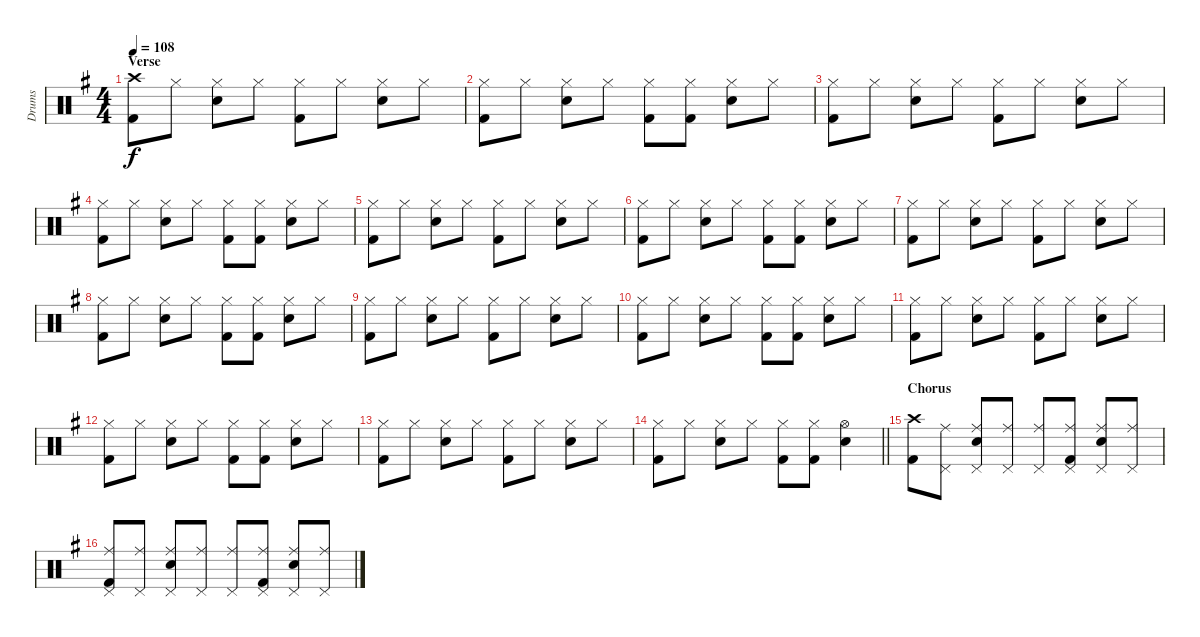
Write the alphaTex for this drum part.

\track ("Drums" "Drums") {instrument percussion}
\staff {score}
\articulation defaults
\ts (4 4)
\section ("" "Verse")
\tempo 108
\clef neutral
\ks g
("Crash high (hit)" "Kick (hit) 2").8{dy f} "Hi-Hat (closed)".8 ("Hi-Hat (closed)" "Electric Snare (hit)").8 "Hi-Hat (closed)".8 ("Hi-Hat (closed)" "Kick (hit) 2").8 "Hi-Hat (closed)".8 ("Hi-Hat (closed)" "Electric Snare (hit)").8 "Hi-Hat (closed)".8 |
("Hi-Hat (closed)" "Kick (hit) 2").8 "Hi-Hat (closed)".8 ("Hi-Hat (closed)" "Electric Snare (hit)").8 "Hi-Hat (closed)".8 ("Hi-Hat (closed)" "Kick (hit) 2").8 ("Hi-Hat (closed)" "Kick (hit) 2").8 ("Hi-Hat (closed)" "Electric Snare (hit)").8 "Hi-Hat (closed)".8 |
("Hi-Hat (closed)" "Kick (hit) 2").8 "Hi-Hat (closed)".8 ("Hi-Hat (closed)" "Electric Snare (hit)").8 "Hi-Hat (closed)".8 ("Hi-Hat (closed)" "Kick (hit) 2").8 "Hi-Hat (closed)".8 ("Hi-Hat (closed)" "Electric Snare (hit)").8 "Hi-Hat (closed)".8 |
("Hi-Hat (closed)" "Kick (hit) 2").8 "Hi-Hat (closed)".8 ("Hi-Hat (closed)" "Electric Snare (hit)").8 "Hi-Hat (closed)".8 ("Hi-Hat (closed)" "Kick (hit) 2").8 ("Hi-Hat (closed)" "Kick (hit) 2").8 ("Hi-Hat (closed)" "Electric Snare (hit)").8 "Hi-Hat (closed)".8 |
("Hi-Hat (closed)" "Kick (hit) 2").8 "Hi-Hat (closed)".8 ("Hi-Hat (closed)" "Electric Snare (hit)").8 "Hi-Hat (closed)".8 ("Hi-Hat (closed)" "Kick (hit) 2").8 "Hi-Hat (closed)".8 ("Hi-Hat (closed)" "Electric Snare (hit)").8 "Hi-Hat (closed)".8 |
("Hi-Hat (closed)" "Kick (hit) 2").8 "Hi-Hat (closed)".8 ("Hi-Hat (closed)" "Electric Snare (hit)").8 "Hi-Hat (closed)".8 ("Hi-Hat (closed)" "Kick (hit) 2").8 ("Hi-Hat (closed)" "Kick (hit) 2").8 ("Hi-Hat (closed)" "Electric Snare (hit)").8 "Hi-Hat (closed)".8 |
("Hi-Hat (closed)" "Kick (hit) 2").8 "Hi-Hat (closed)".8 ("Hi-Hat (closed)" "Electric Snare (hit)").8 "Hi-Hat (closed)".8 ("Hi-Hat (closed)" "Kick (hit) 2").8 "Hi-Hat (closed)".8 ("Hi-Hat (closed)" "Electric Snare (hit)").8 "Hi-Hat (closed)".8 |
("Hi-Hat (closed)" "Kick (hit) 2").8 "Hi-Hat (closed)".8 ("Hi-Hat (closed)" "Electric Snare (hit)").8 "Hi-Hat (closed)".8 ("Hi-Hat (closed)" "Kick (hit) 2").8 ("Hi-Hat (closed)" "Kick (hit) 2").8 ("Hi-Hat (closed)" "Electric Snare (hit)").8 "Hi-Hat (closed)".8 |
("Hi-Hat (closed)" "Kick (hit) 2").8 "Hi-Hat (closed)".8 ("Hi-Hat (closed)" "Electric Snare (hit)").8 "Hi-Hat (closed)".8 ("Hi-Hat (closed)" "Kick (hit) 2").8 "Hi-Hat (closed)".8 ("Hi-Hat (closed)" "Electric Snare (hit)").8 "Hi-Hat (closed)".8 |
("Hi-Hat (closed)" "Kick (hit) 2").8 "Hi-Hat (closed)".8 ("Hi-Hat (closed)" "Electric Snare (hit)").8 "Hi-Hat (closed)".8 ("Hi-Hat (closed)" "Kick (hit) 2").8 ("Hi-Hat (closed)" "Kick (hit) 2").8 ("Hi-Hat (closed)" "Electric Snare (hit)").8 "Hi-Hat (closed)".8 |
("Hi-Hat (closed)" "Kick (hit) 2").8 "Hi-Hat (closed)".8 ("Hi-Hat (closed)" "Electric Snare (hit)").8 "Hi-Hat (closed)".8 ("Hi-Hat (closed)" "Kick (hit) 2").8 "Hi-Hat (closed)".8 ("Hi-Hat (closed)" "Electric Snare (hit)").8 "Hi-Hat (closed)".8 |
("Hi-Hat (closed)" "Kick (hit) 2").8 "Hi-Hat (closed)".8 ("Hi-Hat (closed)" "Electric Snare (hit)").8 "Hi-Hat (closed)".8 ("Hi-Hat (closed)" "Kick (hit) 2").8 ("Hi-Hat (closed)" "Kick (hit) 2").8 ("Hi-Hat (closed)" "Electric Snare (hit)").8 "Hi-Hat (closed)".8 |
("Hi-Hat (closed)" "Kick (hit) 2").8 "Hi-Hat (closed)".8 ("Hi-Hat (closed)" "Electric Snare (hit)").8 "Hi-Hat (closed)".8 ("Hi-Hat (closed)" "Kick (hit) 2").8 "Hi-Hat (closed)".8 ("Hi-Hat (closed)" "Electric Snare (hit)").8 "Hi-Hat (closed)".8 |
\barLineRight lightlight
("Hi-Hat (closed)" "Kick (hit) 2").8 "Hi-Hat (closed)".8 ("Hi-Hat (closed)" "Electric Snare (hit)").8 "Hi-Hat (closed)".8 ("Hi-Hat (closed)" "Kick (hit) 2").8 ("Hi-Hat (closed)" "Kick (hit) 2").8 ("Hi-Hat (open)" "Electric Snare (hit)").4 |
\section ("" "Chorus")
("Crash high (hit)" "Kick (hit) 2").8 ("Ride (middle)" "Pedal Hi-Hat (hit)").8 ("Ride (middle)" "Electric Snare (hit)" "Pedal Hi-Hat (hit)").8 ("Ride (middle)" "Pedal Hi-Hat (hit)").8 ("Ride (middle)" "Pedal Hi-Hat (hit)").8 ("Ride (middle)" "Kick (hit) 2" "Pedal Hi-Hat (hit)").8 ("Ride (middle)" "Electric Snare (hit)" "Pedal Hi-Hat (hit)").8 ("Ride (middle)" "Pedal Hi-Hat (hit)").8 |
("Ride (middle)" "Kick (hit) 2" "Pedal Hi-Hat (hit)").8 ("Ride (middle)" "Pedal Hi-Hat (hit)").8 ("Ride (middle)" "Electric Snare (hit)" "Pedal Hi-Hat (hit)").8 ("Ride (middle)" "Pedal Hi-Hat (hit)").8 ("Ride (middle)" "Pedal Hi-Hat (hit)").8 ("Ride (middle)" "Kick (hit) 2" "Pedal Hi-Hat (hit)").8 ("Ride (middle)" "Electric Snare (hit)" "Pedal Hi-Hat (hit)").8 ("Ride (middle)" "Pedal Hi-Hat (hit)").8
